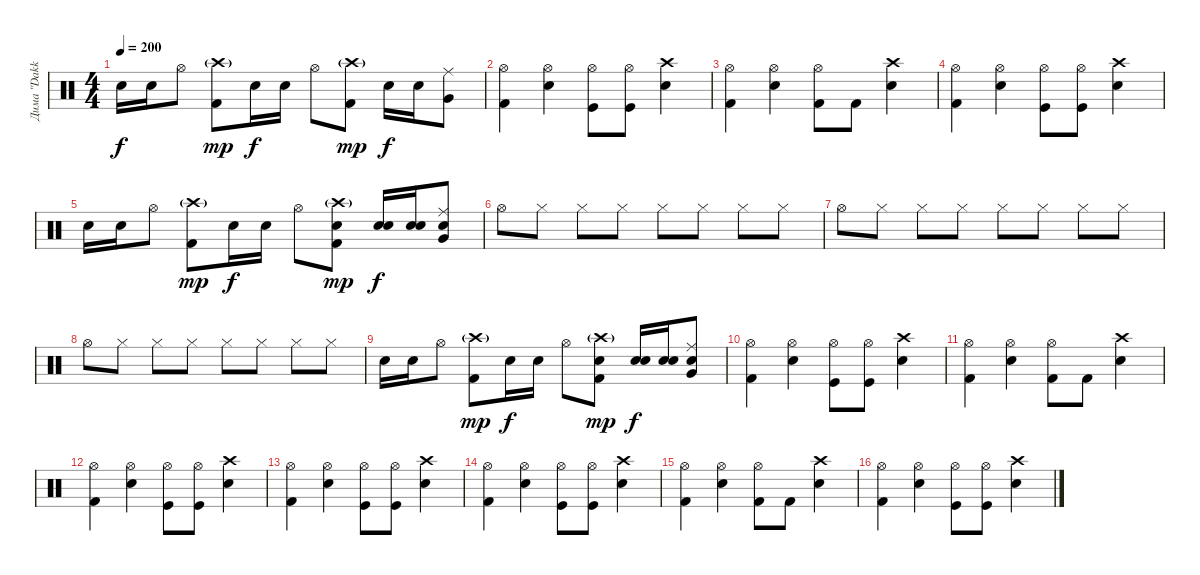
\track ("Дима \"Dakkar\" Кеменов" "Дима \"Dakk") {instrument percussion}
\staff
\articulation defaults
\ts (4 4)
\tempo 200
\clef neutral
\ks c "Electric Snare (hit)".16{dy f} "Electric Snare (hit)".16 "Hi-Hat (open)".8
("Crash high (hit)"{g} "Kick (hit) 2").8{dy mp} "Electric Snare (hit)".16{dy f} "Electric Snare (hit)".16 "Hi-Hat (open)".8 ("Crash high (hit)"{g} "Kick (hit) 2").8{dy mp} "Electric Snare (hit)".16{dy f} "Electric Snare (hit)".16 ("Ride (middle)" "Very Low Tom (hit)").8 |
("Hi-Hat (open)" "Kick (hit) 2").4 ("Hi-Hat (open)" "Electric Snare (hit)").4 ("Hi-Hat (open)" "Kick (hit)").8 ("Hi-Hat (open)" "Kick (hit)").8 ("Crash high (hit)" "Electric Snare (hit)").4 |
("Hi-Hat (open)" "Kick (hit) 2").4 ("Hi-Hat (open)" "Electric Snare (hit)").4 ("Hi-Hat (open)" "Kick (hit) 2").8 "Kick (hit) 2".8 ("Crash high (hit)" "Electric Snare (hit)").4 |
("Hi-Hat (open)" "Kick (hit) 2").4 ("Hi-Hat (open)" "Electric Snare (hit)").4 ("Hi-Hat (open)" "Kick (hit)").8 ("Hi-Hat (open)" "Kick (hit)").8 ("Crash high (hit)" "Electric Snare (hit)").4 |
"Electric Snare (hit)".16 "Electric Snare (hit)".16 "Hi-Hat (open)".8 ("Crash high (hit)"{g} "Kick (hit) 2").8{dy mp} "Electric Snare (hit)".16{dy f} "Electric Snare (hit)".16 "Hi-Hat (open)".8 ("Electric Snare (hit)" "Crash high (hit)"{g} "Kick (hit) 2").8{dy mp} ("Electric Snare (hit)" "Electric Snare (hit)").16{dy f} ("Electric Snare (hit)" "Electric Snare (hit)").16 ("Electric Snare (hit)" "Ride (middle)" "Very Low Tom (hit)").8 |
"Hi-Hat (open)".8 "Hi-Hat (closed)".8 "Hi-Hat (closed)".8 "Hi-Hat (closed)".8 "Hi-Hat (closed)".8 "Hi-Hat (closed)".8 "Hi-Hat (closed)".8 "Hi-Hat (closed)".8 |
"Hi-Hat (open)".8 "Hi-Hat (closed)".8 "Hi-Hat (closed)".8 "Hi-Hat (closed)".8 "Hi-Hat (closed)".8 "Hi-Hat (closed)".8 "Hi-Hat (closed)".8 "Hi-Hat (closed)".8 |
"Hi-Hat (open)".8 "Hi-Hat (closed)".8 "Hi-Hat (closed)".8 "Hi-Hat (closed)".8 "Hi-Hat (closed)".8 "Hi-Hat (closed)".8 "Hi-Hat (closed)".8 "Hi-Hat (closed)".8 |
"Electric Snare (hit)".16 "Electric Snare (hit)".16 "Hi-Hat (open)".8 ("Crash high (hit)"{g} "Kick (hit) 2").8{dy mp} "Electric Snare (hit)".16{dy f} "Electric Snare (hit)".16 "Hi-Hat (open)".8 ("Electric Snare (hit)" "Crash high (hit)"{g} "Kick (hit) 2").8{dy mp} ("Electric Snare (hit)" "Electric Snare (hit)").16{dy f} ("Electric Snare (hit)" "Electric Snare (hit)").16 ("Electric Snare (hit)" "Ride (middle)" "Very Low Tom (hit)").8 |
("Hi-Hat (open)" "Kick (hit) 2").4 ("Hi-Hat (open)" "Electric Snare (hit)").4 ("Hi-Hat (open)" "Kick (hit)").8 ("Hi-Hat (open)" "Kick (hit)").8 ("Crash high (hit)" "Electric Snare (hit)").4 |
("Hi-Hat (open)" "Kick (hit) 2").4 ("Hi-Hat (open)" "Electric Snare (hit)").4 ("Hi-Hat (open)" "Kick (hit) 2").8 "Kick (hit) 2".8 ("Crash high (hit)" "Electric Snare (hit)").4 |
("Hi-Hat (open)" "Kick (hit) 2").4 ("Hi-Hat (open)" "Electric Snare (hit)").4 ("Hi-Hat (open)" "Kick (hit)").8 ("Hi-Hat (open)" "Kick (hit)").8 ("Crash high (hit)" "Electric Snare (hit)").4 |
("Hi-Hat (open)" "Kick (hit) 2").4 ("Hi-Hat (open)" "Electric Snare (hit)").4 ("Hi-Hat (open)" "Kick (hit)").8 ("Hi-Hat (open)" "Kick (hit)").8 ("Crash high (hit)" "Electric Snare (hit)").4 |
("Hi-Hat (open)" "Kick (hit) 2").4 ("Hi-Hat (open)" "Electric Snare (hit)").4 ("Hi-Hat (open)" "Kick (hit)").8 ("Hi-Hat (open)" "Kick (hit)").8 ("Crash high (hit)" "Electric Snare (hit)").4 |
("Hi-Hat (open)" "Kick (hit) 2").4 ("Hi-Hat (open)" "Electric Snare (hit)").4 ("Hi-Hat (open)" "Kick (hit) 2").8 "Kick (hit) 2".8 ("Crash high (hit)" "Electric Snare (hit)").4 |
("Hi-Hat (open)" "Kick (hit) 2").4 ("Hi-Hat (open)" "Electric Snare (hit)").4 ("Hi-Hat (open)" "Kick (hit)").8 ("Hi-Hat (open)" "Kick (hit)").8 ("Crash high (hit)" "Electric Snare (hit)").4
